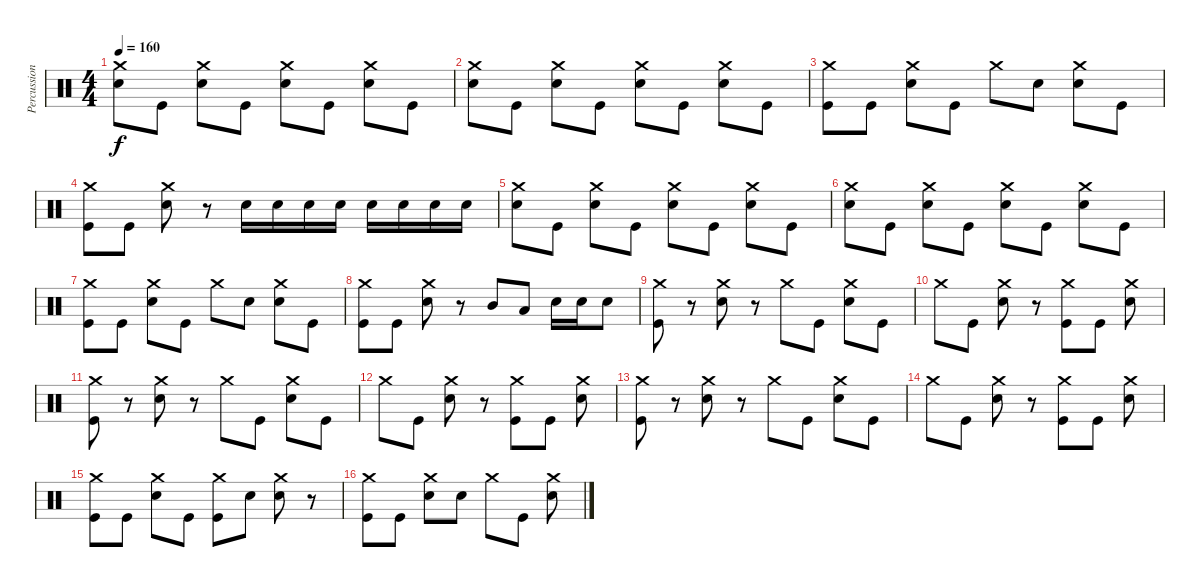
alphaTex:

\track ("Percussion" "Percussion") {instrument percussion}
\staff {score}
\articulation defaults
\ts (4 4)
\tempo 160
\clef neutral
\ks c
("Crash medium (hit)" "Electric Snare (hit)").8{dy f} "Kick (hit)".8 ("Crash medium (hit)" "Electric Snare (hit)").8 "Kick (hit)".8 ("Crash medium (hit)" "Electric Snare (hit)").8 "Kick (hit)".8 ("Crash medium (hit)" "Electric Snare (hit)").8 "Kick (hit)".8 |
("Crash medium (hit)" "Electric Snare (hit)").8 "Kick (hit)".8 ("Crash medium (hit)" "Electric Snare (hit)").8 "Kick (hit)".8 ("Crash medium (hit)" "Electric Snare (hit)").8 "Kick (hit)".8 ("Crash medium (hit)" "Electric Snare (hit)").8 "Kick (hit)".8 |
("Crash medium (hit)" "Kick (hit)").8 "Kick (hit)".8 ("Crash medium (hit)" "Electric Snare (hit)").8 "Kick (hit)".8 "Crash medium (hit)".8 "Electric Snare (hit)".8 ("Crash medium (hit)" "Electric Snare (hit)").8 "Kick (hit)".8 |
("Crash medium (hit)" "Kick (hit)").8 "Kick (hit)".8 ("Crash medium (hit)" "Electric Snare (hit)").8 r.8 "Electric Snare (hit)".16 "Electric Snare (hit)".16 "Electric Snare (hit)".16 "Electric Snare (hit)".16 "Electric Snare (hit)".16 "Electric Snare (hit)".16 "Electric Snare (hit)".16 "Electric Snare (hit)".16 |
("Crash medium (hit)" "Electric Snare (hit)").8 "Kick (hit)".8 ("Crash medium (hit)" "Electric Snare (hit)").8 "Kick (hit)".8 ("Crash medium (hit)" "Electric Snare (hit)").8 "Kick (hit)".8 ("Crash medium (hit)" "Electric Snare (hit)").8 "Kick (hit)".8 |
("Crash medium (hit)" "Electric Snare (hit)").8 "Kick (hit)".8 ("Crash medium (hit)" "Electric Snare (hit)").8 "Kick (hit)".8 ("Crash medium (hit)" "Electric Snare (hit)").8 "Kick (hit)".8 ("Crash medium (hit)" "Electric Snare (hit)").8 "Kick (hit)".8 |
("Crash medium (hit)" "Kick (hit)").8 "Kick (hit)".8 ("Crash medium (hit)" "Electric Snare (hit)").8 "Kick (hit)".8 "Crash medium (hit)".8 "Electric Snare (hit)".8 ("Crash medium (hit)" "Electric Snare (hit)").8 "Kick (hit)".8 |
("Crash medium (hit)" "Kick (hit)").8 "Kick (hit)".8 ("Crash medium (hit)" "Electric Snare (hit)").8 r.8 "Mid Tom (hit)".8 "Low Tom (hit)".8 "Electric Snare (hit)".16 "Electric Snare (hit)".16 "Electric Snare (hit)".8 |
("Crash medium (hit)" "Kick (hit)").8 r.8 ("Crash medium (hit)" "Electric Snare (hit)").8 r.8 "Crash medium (hit)".8 "Kick (hit)".8 ("Crash medium (hit)" "Electric Snare (hit)").8 "Kick (hit)".8 |
"Crash medium (hit)".8 "Kick (hit)".8 ("Crash medium (hit)" "Electric Snare (hit)").8 r.8 ("Crash medium (hit)" "Kick (hit)").8 "Kick (hit)".8 ("Crash medium (hit)" "Electric Snare (hit)").8 |
("Crash medium (hit)" "Kick (hit)").8 r.8 ("Crash medium (hit)" "Electric Snare (hit)").8 r.8 "Crash medium (hit)".8 "Kick (hit)".8 ("Crash medium (hit)" "Electric Snare (hit)").8 "Kick (hit)".8 |
"Crash medium (hit)".8 "Kick (hit)".8 ("Crash medium (hit)" "Electric Snare (hit)").8 r.8 ("Crash medium (hit)" "Kick (hit)").8 "Kick (hit)".8 ("Crash medium (hit)" "Electric Snare (hit)").8 |
("Crash medium (hit)" "Kick (hit)").8 r.8 ("Crash medium (hit)" "Electric Snare (hit)").8 r.8 "Crash medium (hit)".8 "Kick (hit)".8 ("Crash medium (hit)" "Electric Snare (hit)").8 "Kick (hit)".8 |
"Crash medium (hit)".8 "Kick (hit)".8 ("Crash medium (hit)" "Electric Snare (hit)").8 r.8 ("Crash medium (hit)" "Kick (hit)").8 "Kick (hit)".8 ("Crash medium (hit)" "Electric Snare (hit)").8 |
("Crash medium (hit)" "Kick (hit)").8 "Kick (hit)".8 ("Crash medium (hit)" "Electric Snare (hit)").8 "Kick (hit)".8 ("Crash medium (hit)" "Kick (hit)").8 "Electric Snare (hit)".8 ("Crash medium (hit)" "Electric Snare (hit)").8 r.8 |
("Crash medium (hit)" "Kick (hit)").8 "Kick (hit)".8 ("Crash medium (hit)" "Electric Snare (hit)").8 "Electric Snare (hit)".8 "Crash medium (hit)".8 "Kick (hit)".8 ("Crash medium (hit)" "Electric Snare (hit)").8
